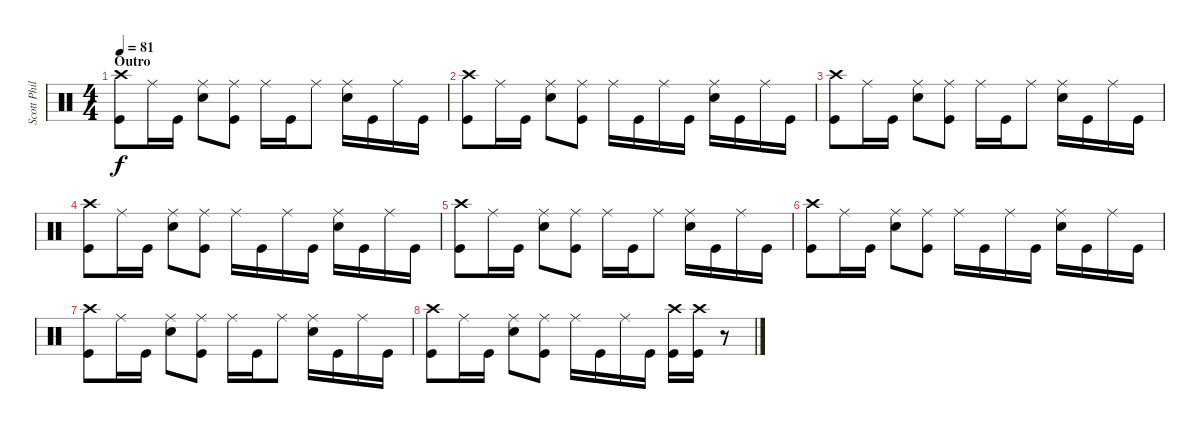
\track ("Scott Phillips" "Scott Phil") {instrument percussion}
\staff {score}
\articulation defaults
\ts (4 4)
\section ("" "Outro")
\tempo 81
\clef neutral
\ks c
("Crash high (hit)" "Kick (hit)").8{dy f} "Ride (middle)".16 "Kick (hit)".16 ("Ride (middle)" "Snare (hit) 2").8 ("Ride (middle)" "Kick (hit)").8 "Ride (middle)".16 "Kick (hit)".16 "Ride (middle)".8 ("Ride (middle)" "Snare (hit) 2").16 "Kick (hit)".16 "Ride (middle)".16 "Kick (hit)".16 |
("Crash high (hit)" "Kick (hit)").8 "Ride (middle)".16 "Kick (hit)".16 ("Ride (middle)" "Snare (hit) 2").8 ("Ride (middle)" "Kick (hit)").8 "Ride (middle)".16 "Kick (hit)".16 "Ride (middle)".16 "Kick (hit)".16 ("Ride (middle)" "Snare (hit) 2").16 "Kick (hit)".16 "Ride (middle)".16 "Kick (hit)".16 |
("Crash high (hit)" "Kick (hit)").8 "Ride (middle)".16 "Kick (hit)".16 ("Ride (middle)" "Snare (hit) 2").8 ("Ride (middle)" "Kick (hit)").8 "Ride (middle)".16 "Kick (hit)".16 "Ride (middle)".8 ("Ride (middle)" "Snare (hit) 2").16 "Kick (hit)".16 "Ride (middle)".16 "Kick (hit)".16 |
("Crash high (hit)" "Kick (hit)").8 "Ride (middle)".16 "Kick (hit)".16 ("Ride (middle)" "Snare (hit) 2").8 ("Ride (middle)" "Kick (hit)").8 "Ride (middle)".16 "Kick (hit)".16 "Ride (middle)".16 "Kick (hit)".16 ("Ride (middle)" "Snare (hit) 2").16 "Kick (hit)".16 "Ride (middle)".16 "Kick (hit)".16 |
("Crash high (hit)" "Kick (hit)").8 "Ride (middle)".16 "Kick (hit)".16 ("Ride (middle)" "Snare (hit) 2").8 ("Ride (middle)" "Kick (hit)").8 "Ride (middle)".16 "Kick (hit)".16 "Ride (middle)".8 ("Ride (middle)" "Snare (hit) 2").16 "Kick (hit)".16 "Ride (middle)".16 "Kick (hit)".16 |
("Crash high (hit)" "Kick (hit)").8 "Ride (middle)".16 "Kick (hit)".16 ("Ride (middle)" "Snare (hit) 2").8 ("Ride (middle)" "Kick (hit)").8 "Ride (middle)".16 "Kick (hit)".16 "Ride (middle)".16 "Kick (hit)".16 ("Ride (middle)" "Snare (hit) 2").16 "Kick (hit)".16 "Ride (middle)".16 "Kick (hit)".16 |
("Crash high (hit)" "Kick (hit)").8 "Ride (middle)".16 "Kick (hit)".16 ("Ride (middle)" "Snare (hit) 2").8 ("Ride (middle)" "Kick (hit)").8 "Ride (middle)".16 "Kick (hit)".16 "Ride (middle)".8 ("Ride (middle)" "Snare (hit) 2").16 "Kick (hit)".16 "Ride (middle)".16 "Kick (hit)".16 |
("Crash high (hit)" "Kick (hit)").8 "Ride (middle)".16 "Kick (hit)".16 ("Ride (middle)" "Snare (hit) 2").8 ("Ride (middle)" "Kick (hit)").8 "Ride (middle)".16 "Kick (hit)".16 "Ride (middle)".16 "Kick (hit)".16 ("Crash high (hit)" "Kick (hit)").16 ("Crash high (hit)" "Kick (hit)").16 r.8
